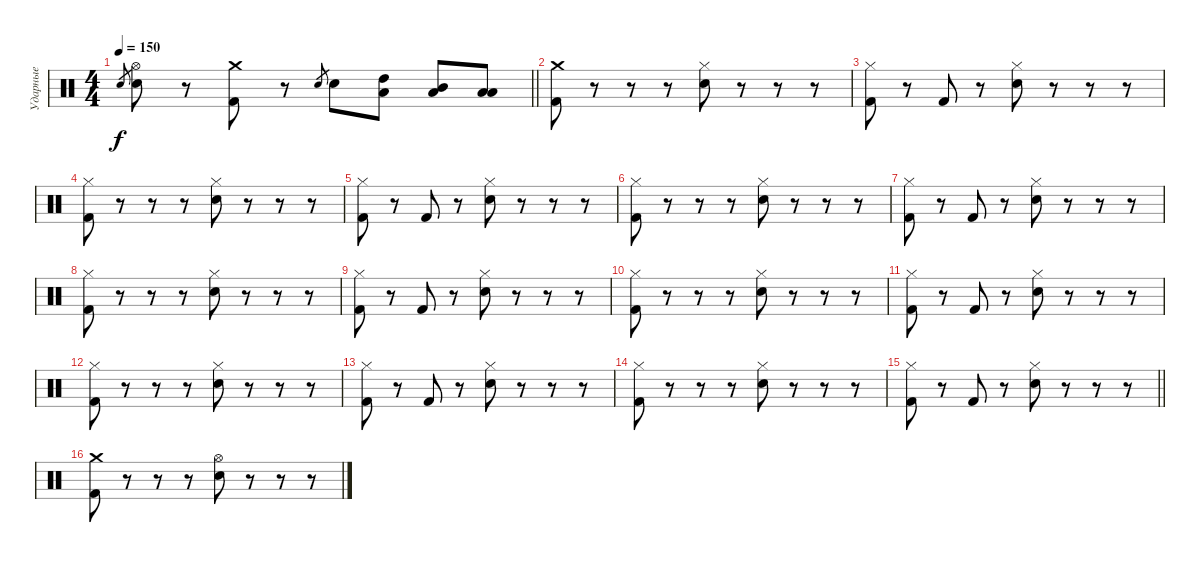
\track ("Ударные" "Ударные") {instrument percussion}
\staff {score}
\articulation defaults
\ts (4 4)
\tempo 150
\clef neutral
\barLineRight lightlight
\ks c "Electric Snare (hit)".8{gr dy f}
("Hi-Hat (open)" "Electric Snare (hit)").8 r.8 ("Crash medium (hit)" "Kick (hit) 2").8 r.8 "Electric Snare (hit)".8{gr} "Electric Snare (hit)".8 ("Low Tom (hit)" "High Tom (hit)").8 ("Low Tom (hit)" "Mid Tom (hit)").8 ("Low Tom (hit)" "Low Tom (hit)").8 |
("Crash medium (hit)" "Kick (hit) 2").8 r.8 r.8 r.8 ("Hi-Hat (closed)" "Electric Snare (hit)").8 r.8 r.8 r.8 |
("Hi-Hat (closed)" "Kick (hit) 2").8 r.8 "Kick (hit) 2".8 r.8 ("Hi-Hat (closed)" "Electric Snare (hit)").8 r.8 r.8 r.8 |
("Hi-Hat (closed)" "Kick (hit) 2").8 r.8 r.8 r.8 ("Hi-Hat (closed)" "Electric Snare (hit)").8 r.8 r.8 r.8 |
("Hi-Hat (closed)" "Kick (hit) 2").8 r.8 "Kick (hit) 2".8 r.8 ("Hi-Hat (closed)" "Electric Snare (hit)").8 r.8 r.8 r.8 |
("Hi-Hat (closed)" "Kick (hit) 2").8 r.8 r.8 r.8 ("Hi-Hat (closed)" "Electric Snare (hit)").8 r.8 r.8 r.8 |
("Hi-Hat (closed)" "Kick (hit) 2").8 r.8 "Kick (hit) 2".8 r.8 ("Hi-Hat (closed)" "Electric Snare (hit)").8 r.8 r.8 r.8 |
("Hi-Hat (closed)" "Kick (hit) 2").8 r.8 r.8 r.8 ("Hi-Hat (closed)" "Electric Snare (hit)").8 r.8 r.8 r.8 |
("Hi-Hat (closed)" "Kick (hit) 2").8 r.8 "Kick (hit) 2".8 r.8 ("Hi-Hat (closed)" "Electric Snare (hit)").8 r.8 r.8 r.8 |
("Hi-Hat (closed)" "Kick (hit) 2").8 r.8 r.8 r.8 ("Hi-Hat (closed)" "Electric Snare (hit)").8 r.8 r.8 r.8 |
("Hi-Hat (closed)" "Kick (hit) 2").8 r.8 "Kick (hit) 2".8 r.8 ("Hi-Hat (closed)" "Electric Snare (hit)").8 r.8 r.8 r.8 |
("Hi-Hat (closed)" "Kick (hit) 2").8 r.8 r.8 r.8 ("Hi-Hat (closed)" "Electric Snare (hit)").8 r.8 r.8 r.8 |
("Hi-Hat (closed)" "Kick (hit) 2").8 r.8 "Kick (hit) 2".8 r.8 ("Hi-Hat (closed)" "Electric Snare (hit)").8 r.8 r.8 r.8 |
("Hi-Hat (closed)" "Kick (hit) 2").8 r.8 r.8 r.8 ("Hi-Hat (closed)" "Electric Snare (hit)").8 r.8 r.8 r.8 |
\barLineRight lightlight
("Hi-Hat (closed)" "Kick (hit) 2").8 r.8 "Kick (hit) 2".8 r.8 ("Hi-Hat (closed)" "Electric Snare (hit)").8 r.8 r.8 r.8 |
("Crash medium (hit)" "Kick (hit) 2").8 r.8 r.8 r.8 ("Hi-Hat (open)" "Electric Snare (hit)").8 r.8 r.8 r.8
